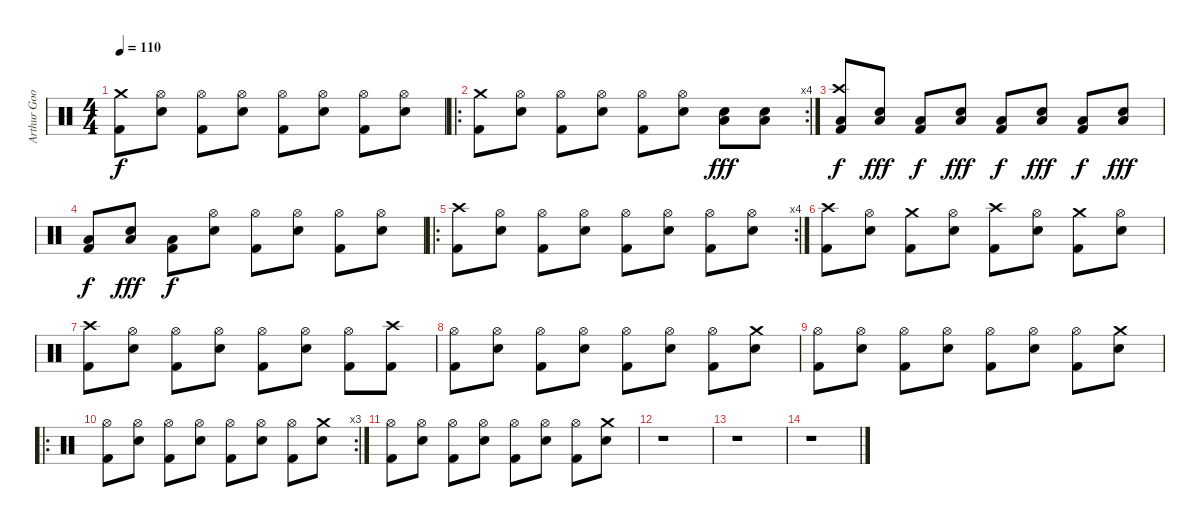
\track ("Arthur Googy" "Arthur Goo") {instrument percussion}
\staff {score}
\articulation defaults
\ts (4 4)
\tempo 110
\clef neutral
\ks c
("Crash medium (hit)" "Kick (hit) 2").8{dy f} ("Hi-Hat (open)" "Electric Snare (hit)").8 ("Hi-Hat (open)" "Kick (hit) 2").8 ("Hi-Hat (open)" "Electric Snare (hit)").8 ("Hi-Hat (open)" "Kick (hit) 2").8 ("Hi-Hat (open)" "Electric Snare (hit)").8 ("Hi-Hat (open)" "Kick (hit) 2").8 ("Hi-Hat (open)" "Electric Snare (hit)").8 |
\ro
\rc 4
("Crash medium (hit)" "Kick (hit) 2").8 ("Hi-Hat (open)" "Electric Snare (hit)").8 ("Hi-Hat (open)" "Kick (hit) 2").8 ("Hi-Hat (open)" "Electric Snare (hit)").8 ("Hi-Hat (open)" "Kick (hit) 2").8 ("Hi-Hat (open)" "Electric Snare (hit)").8 ("Low Tom (hit)" "Electric Snare (hit)").8{dy fff} ("Low Tom (hit)" "Electric Snare (hit)").8 |
("Crash high (hit)" "Low Floor Tom (hit)" "Kick (hit) 2").8{dy f} ("Electric Snare (hit)" "Low Floor Tom (hit)").8{dy fff} ("Low Floor Tom (hit)" "Kick (hit) 2").8{dy f} ("Electric Snare (hit)" "Low Floor Tom (hit)").8{dy fff} ("Low Floor Tom (hit)" "Kick (hit) 2").8{dy f} ("Electric Snare (hit)" "Low Floor Tom (hit)").8{dy fff} ("Low Floor Tom (hit)" "Kick (hit) 2").8{dy f} ("Electric Snare (hit)" "Low Floor Tom (hit)").8{dy fff} |
("Low Floor Tom (hit)" "Kick (hit) 2").8{dy f} ("Electric Snare (hit)" "Low Floor Tom (hit)").8{dy fff} ("Low Floor Tom (hit)" "Kick (hit) 2").8{dy f} ("Hi-Hat (open)" "Electric Snare (hit)").8 ("Hi-Hat (open)" "Kick (hit) 2").8 ("Hi-Hat (open)" "Electric Snare (hit)").8 ("Hi-Hat (open)" "Kick (hit) 2").8 ("Hi-Hat (open)" "Electric Snare (hit)").8 |
\ro
\rc 4
("Crash high (hit)" "Kick (hit) 2").8 ("Hi-Hat (open)" "Electric Snare (hit)").8 ("Hi-Hat (open)" "Kick (hit) 2").8 ("Hi-Hat (open)" "Electric Snare (hit)").8 ("Hi-Hat (open)" "Kick (hit) 2").8 ("Hi-Hat (open)" "Electric Snare (hit)").8 ("Hi-Hat (open)" "Kick (hit) 2").8 ("Hi-Hat (open)" "Electric Snare (hit)").8 |
("Crash high (hit)" "Kick (hit) 2").8 ("Hi-Hat (open)" "Electric Snare (hit)").8 ("Crash medium (hit)" "Kick (hit) 2").8 ("Hi-Hat (open)" "Electric Snare (hit)").8 ("Crash high (hit)" "Kick (hit) 2").8 ("Hi-Hat (open)" "Electric Snare (hit)").8 ("Crash medium (hit)" "Kick (hit) 2").8 ("Hi-Hat (open)" "Electric Snare (hit)").8 |
("Crash high (hit)" "Kick (hit) 2").8 ("Hi-Hat (open)" "Electric Snare (hit)").8 ("Hi-Hat (open)" "Kick (hit) 2").8 ("Hi-Hat (open)" "Electric Snare (hit)").8 ("Hi-Hat (open)" "Kick (hit) 2").8 ("Hi-Hat (open)" "Electric Snare (hit)").8 ("Hi-Hat (open)" "Kick (hit) 2").8 ("Crash high (hit)" "Kick (hit) 2").8 |
("Hi-Hat (open)" "Kick (hit) 2").8 ("Hi-Hat (open)" "Electric Snare (hit)").8 ("Hi-Hat (open)" "Kick (hit) 2").8 ("Hi-Hat (open)" "Electric Snare (hit)").8 ("Hi-Hat (open)" "Kick (hit) 2").8 ("Hi-Hat (open)" "Electric Snare (hit)").8 ("Hi-Hat (open)" "Kick (hit) 2").8 ("Crash medium (hit)" "Electric Snare (hit)").8 |
("Hi-Hat (open)" "Kick (hit) 2").8 ("Hi-Hat (open)" "Electric Snare (hit)").8 ("Hi-Hat (open)" "Kick (hit) 2").8 ("Hi-Hat (open)" "Electric Snare (hit)").8 ("Hi-Hat (open)" "Kick (hit) 2").8 ("Hi-Hat (open)" "Electric Snare (hit)").8 ("Hi-Hat (open)" "Kick (hit) 2").8 ("Crash medium (hit)" "Electric Snare (hit)").8 |
\ro
\rc 3
("Hi-Hat (open)" "Kick (hit) 2").8 ("Hi-Hat (open)" "Electric Snare (hit)").8 ("Hi-Hat (open)" "Kick (hit) 2").8 ("Hi-Hat (open)" "Electric Snare (hit)").8 ("Hi-Hat (open)" "Kick (hit) 2").8 ("Hi-Hat (open)" "Electric Snare (hit)").8 ("Hi-Hat (open)" "Kick (hit) 2").8 ("Crash medium (hit)" "Electric Snare (hit)").8 |
("Hi-Hat (open)" "Kick (hit) 2").8 ("Hi-Hat (open)" "Electric Snare (hit)").8 ("Hi-Hat (open)" "Kick (hit) 2").8 ("Hi-Hat (open)" "Electric Snare (hit)").8 ("Hi-Hat (open)" "Kick (hit) 2").8 ("Hi-Hat (open)" "Electric Snare (hit)").8 ("Hi-Hat (open)" "Kick (hit) 2").8 ("Crash medium (hit)" "Electric Snare (hit)").8 |
r.1 |
r.1 |
r.1
